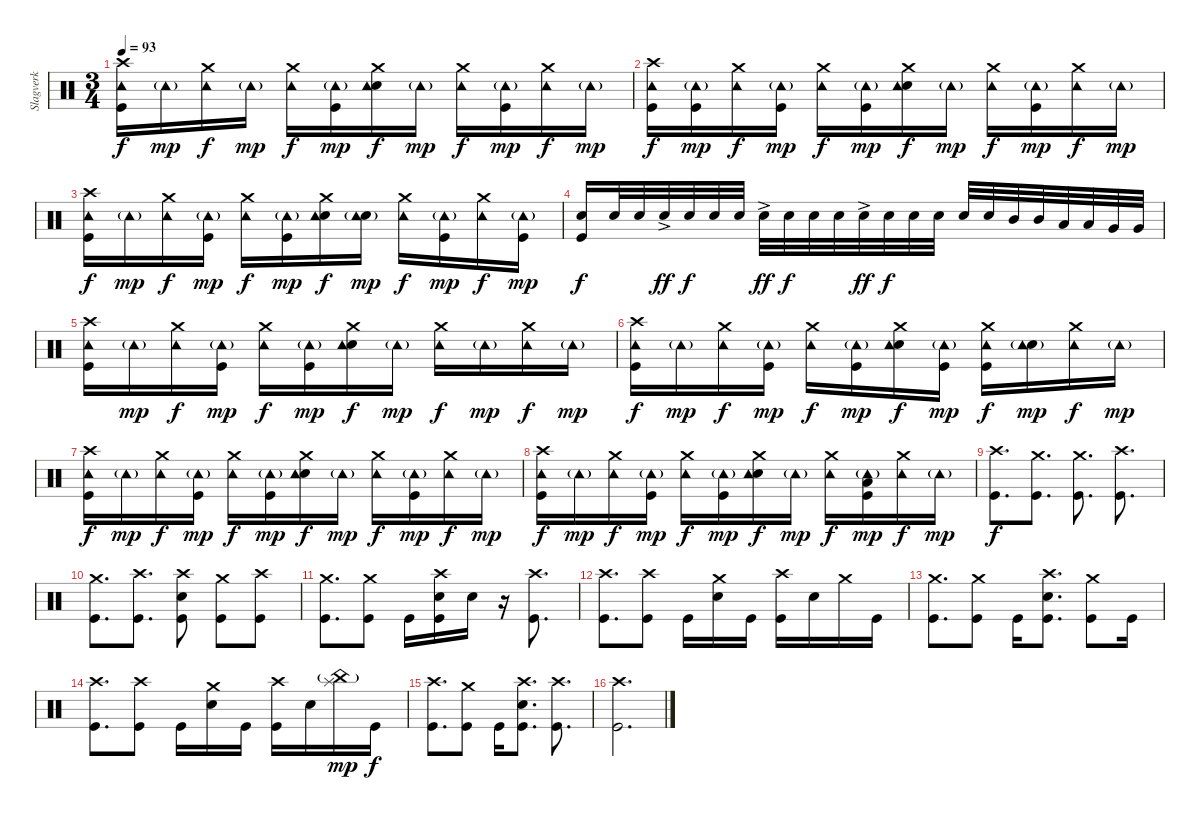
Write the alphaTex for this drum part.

\track ("Slagverk" "Slagverk") {instrument percussion}
\staff {score}
\articulation defaults
\ts (3 4)
\tempo 93
\clef neutral
\ks c
("Crash high (hit)" "Tambourine (hit)" "Kick (hit)").16{dy f} "Tambourine (hit)"{g}.16{dy mp} ("Crash medium (hit)" "Tambourine (hit)").16{dy f} "Tambourine (hit)"{g}.16{dy mp} ("Crash medium (hit)" "Tambourine (hit)").16{dy f} ("Kick (hit)" "Tambourine (hit)"{g}).16{dy mp} ("Crash medium (hit)" "Electric Snare (hit)" "Tambourine (hit)").16{dy f} "Tambourine (hit)"{g}.16{dy mp} ("Crash medium (hit)" "Tambourine (hit)").16{dy f} ("Kick (hit)" "Tambourine (hit)"{g}).16{dy mp} ("Crash medium (hit)" "Tambourine (hit)").16{dy f} "Tambourine (hit)"{g}.16{dy mp} |
("Crash high (hit)" "Kick (hit)" "Tambourine (hit)").16{dy f} ("Kick (hit)" "Tambourine (hit)"{g}).16{dy mp} ("Crash medium (hit)" "Tambourine (hit)").16{dy f} ("Kick (hit)" "Tambourine (hit)"{g}).16{dy mp} ("Crash medium (hit)" "Tambourine (hit)").16{dy f} ("Kick (hit)" "Tambourine (hit)"{g}).16{dy mp} ("Crash medium (hit)" "Electric Snare (hit)" "Tambourine (hit)").16{dy f} "Tambourine (hit)"{g}.16{dy mp} ("Crash medium (hit)" "Tambourine (hit)").16{dy f} ("Kick (hit)" "Tambourine (hit)"{g}).16{dy mp} ("Crash medium (hit)" "Tambourine (hit)").16{dy f} "Tambourine (hit)"{g}.16{dy mp} |
("Crash high (hit)" "Kick (hit)" "Tambourine (hit)").16{dy f} "Tambourine (hit)"{g}.16{dy mp} ("Crash medium (hit)" "Tambourine (hit)").16{dy f} ("Kick (hit)" "Tambourine (hit)"{g}).16{dy mp} ("Crash medium (hit)" "Tambourine (hit)").16{dy f} ("Kick (hit)" "Tambourine (hit)"{g}).16{dy mp} ("Crash medium (hit)" "Electric Snare (hit)" "Tambourine (hit)").16{dy f} ("Electric Snare (hit)" "Tambourine (hit)"{g}).16{dy mp} ("Crash medium (hit)" "Tambourine (hit)").16{dy f} ("Kick (hit)" "Tambourine (hit)"{g}).16{dy mp} ("Crash medium (hit)" "Tambourine (hit)").16{dy f} ("Kick (hit)" "Tambourine (hit)"{g}).16{dy mp} |
("Kick (hit)" "Electric Snare (hit)").16{dy f} "Electric Snare (hit)".32 "Electric Snare (hit)".32 "Electric Snare (hit)"{ac}.32{dy ff} "Electric Snare (hit)".32{dy f} "Electric Snare (hit)".32 "Electric Snare (hit)".32 "Electric Snare (hit)"{ac}.32{dy ff} "Electric Snare (hit)".32{dy f} "Electric Snare (hit)".32 "Electric Snare (hit)".32 "Electric Snare (hit)"{ac}.32{dy ff} "Electric Snare (hit)".32{dy f} "Electric Snare (hit)".32 "Electric Snare (hit)".32 "Electric Snare (hit)".32 "Electric Snare (hit)".32 "Mid Tom (hit)".32 "Mid Tom (hit)".32 "Low Tom (hit)".32 "Low Tom (hit)".32 "Very Low Tom (hit)".32 "Very Low Tom (hit)".32 |
("Crash high (hit)" "Tambourine (hit)" "Kick (hit)").16 "Tambourine (hit)"{g}.16{dy mp} ("Crash medium (hit)" "Tambourine (hit)").16{dy f} ("Tambourine (hit)"{g} "Kick (hit)").16{dy mp} ("Crash medium (hit)" "Tambourine (hit)").16{dy f} ("Kick (hit)" "Tambourine (hit)"{g}).16{dy mp} ("Crash medium (hit)" "Electric Snare (hit)" "Tambourine (hit)").16{dy f} "Tambourine (hit)"{g}.16{dy mp} ("Crash medium (hit)" "Tambourine (hit)").16{dy f} "Tambourine (hit)"{g}.16{dy mp} ("Crash medium (hit)" "Tambourine (hit)").16{dy f} "Tambourine (hit)"{g}.16{dy mp} |
("Crash high (hit)" "Kick (hit)" "Tambourine (hit)").16{dy f} "Tambourine (hit)"{g}.16{dy mp} ("Crash medium (hit)" "Tambourine (hit)").16{dy f} ("Kick (hit)" "Tambourine (hit)"{g}).16{dy mp} ("Crash medium (hit)" "Tambourine (hit)").16{dy f} ("Kick (hit)" "Tambourine (hit)"{g}).16{dy mp} ("Crash medium (hit)" "Electric Snare (hit)" "Tambourine (hit)").16{dy f} ("Kick (hit)" "Tambourine (hit)"{g}).16{dy mp} ("Crash medium (hit)" "Kick (hit)" "Tambourine (hit)").16{dy f} ("Electric Snare (hit)" "Tambourine (hit)"{g}).16{dy mp} ("Crash medium (hit)" "Tambourine (hit)").16{dy f} "Tambourine (hit)"{g}.16{dy mp} |
("Crash high (hit)" "Kick (hit)" "Tambourine (hit)").16{dy f} "Tambourine (hit)"{g}.16{dy mp} ("Crash medium (hit)" "Tambourine (hit)").16{dy f} ("Kick (hit)" "Tambourine (hit)"{g}).16{dy mp} ("Crash medium (hit)" "Tambourine (hit)").16{dy f} ("Kick (hit)" "Tambourine (hit)"{g}).16{dy mp} ("Crash medium (hit)" "Electric Snare (hit)" "Tambourine (hit)").16{dy f} "Tambourine (hit)"{g}.16{dy mp} ("Crash medium (hit)" "Tambourine (hit)").16{dy f} ("Kick (hit)" "Tambourine (hit)"{g}).16{dy mp} ("Crash medium (hit)" "Tambourine (hit)").16{dy f} "Tambourine (hit)"{g}.16{dy mp} |
("Crash high (hit)" "Kick (hit)" "Tambourine (hit)").16{dy f} "Tambourine (hit)"{g}.16{dy mp} ("Crash medium (hit)" "Tambourine (hit)").16{dy f} ("Kick (hit)" "Tambourine (hit)"{g}).16{dy mp} ("Crash medium (hit)" "Tambourine (hit)").16{dy f} ("Kick (hit)" "Tambourine (hit)"{g}).16{dy mp} ("Crash medium (hit)" "Electric Snare (hit)" "Tambourine (hit)").16{dy f} "Tambourine (hit)"{g}.16{dy mp} ("Crash medium (hit)" "Tambourine (hit)").16{dy f} ("Kick (hit)" "Low Floor Tom (hit)" "Tambourine (hit)"{g}).16{dy mp} ("Crash medium (hit)" "Tambourine (hit)").16{dy f} "Tambourine (hit)"{g}.16{dy mp} |
("Crash high (hit)" "Kick (hit)").8{d dy f} ("Crash medium (hit)" "Kick (hit)").8{d} ("Crash medium (hit)" "Kick (hit)").8{d} ("Crash high (hit)" "Kick (hit)").8{d} |
("Crash medium (hit)" "Kick (hit)").8{d} ("Crash high (hit)" "Kick (hit)").8{d} ("Crash high (hit)" "Electric Snare (hit)" "Kick (hit)").8 ("Crash medium (hit)" "Kick (hit)").8 ("Crash high (hit)" "Kick (hit)").8 |
("Crash medium (hit)" "Kick (hit)").8{d} ("Crash medium (hit)" "Kick (hit)").8 "Kick (hit)".16 ("Crash high (hit)" "Electric Snare (hit)" "Kick (hit)").16 "Electric Snare (hit)".16 r.16 ("Crash high (hit)" "Kick (hit)").8{d} |
("Crash high (hit)" "Kick (hit)").8{d} ("Crash high (hit)" "Kick (hit)").8 "Kick (hit)".16 ("Crash medium (hit)" "Electric Snare (hit)").16 "Kick (hit)".16 ("Crash high (hit)" "Kick (hit)").16 "Electric Snare (hit)".16 "Crash medium (hit)".16 "Kick (hit)".16 |
("Crash medium (hit)" "Kick (hit)").8{d} ("Crash medium (hit)" "Kick (hit)").8 "Kick (hit)".16 ("Crash high (hit)" "Electric Snare (hit)" "Kick (hit)").8{d} ("Crash medium (hit)" "Kick (hit)").8 "Kick (hit)".16 |
("Crash high (hit)" "Kick (hit)").8{d} ("Crash high (hit)" "Kick (hit)").8 "Kick (hit)".16 ("Crash medium (hit)" "Electric Snare (hit)").16 "Kick (hit)".16 ("Crash high (hit)" "Kick (hit)").16 "Electric Snare (hit)".16 ("China (hit)"{g} "Splash (hit)").16{dy mp} "Kick (hit)".16{dy f} |
("Crash high (hit)" "Kick (hit)").8{d} ("Crash medium (hit)" "Kick (hit)").8 "Kick (hit)".16 ("Crash high (hit)" "Electric Snare (hit)" "Kick (hit)").8{d} ("Crash high (hit)" "Kick (hit)").8{d} |
("Kick (hit)" "Crash high (hit)").2{d}
